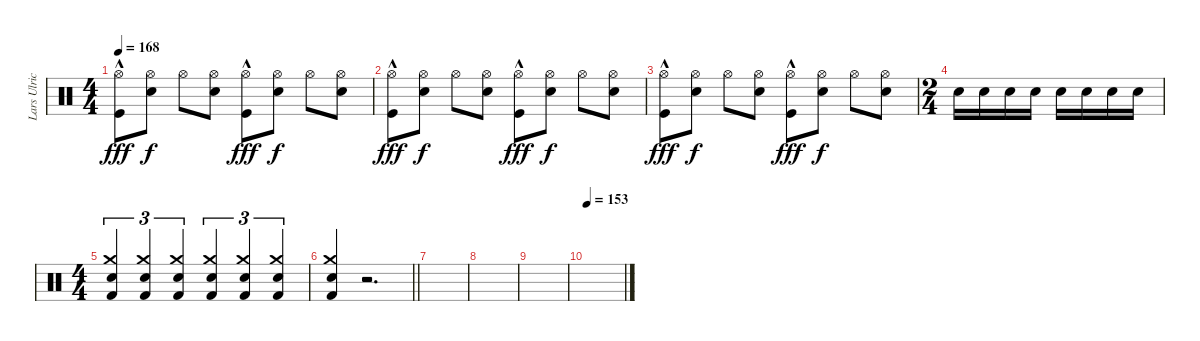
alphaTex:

\track ("Lars Ulrich" "Lars Ulric") {instrument percussion}
\staff {score}
\articulation defaults
\ts (4 4)
\tempo 168
\clef neutral
\ks c
("Hi-Hat (open)" "Kick (hit)"{hac}).8{dy fff} ("Hi-Hat (open)" "Snare (hit) 2").8{dy f} "Hi-Hat (open)".8 ("Hi-Hat (open)" "Snare (hit) 2").8 ("Hi-Hat (open)" "Kick (hit)"{hac}).8{dy fff} ("Hi-Hat (open)" "Snare (hit) 2").8{dy f} "Hi-Hat (open)".8 ("Hi-Hat (open)" "Snare (hit) 2").8 |
("Hi-Hat (open)" "Kick (hit)"{hac}).8{dy fff} ("Hi-Hat (open)" "Snare (hit) 2").8{dy f} "Hi-Hat (open)".8 ("Hi-Hat (open)" "Snare (hit) 2").8 ("Hi-Hat (open)" "Kick (hit)"{hac}).8{dy fff} ("Hi-Hat (open)" "Snare (hit) 2").8{dy f} "Hi-Hat (open)".8 ("Hi-Hat (open)" "Snare (hit) 2").8 |
("Hi-Hat (open)" "Kick (hit)"{hac}).8{dy fff} ("Hi-Hat (open)" "Snare (hit) 2").8{dy f} "Hi-Hat (open)".8 ("Hi-Hat (open)" "Snare (hit) 2").8 ("Hi-Hat (open)" "Kick (hit)"{hac}).8{dy fff} ("Hi-Hat (open)" "Snare (hit) 2").8{dy f} "Hi-Hat (open)".8 ("Hi-Hat (open)" "Snare (hit) 2").8 |
\ts (2 4)
"Snare (hit) 2".16 "Snare (hit) 2".16 "Snare (hit) 2".16 "Snare (hit) 2".16 "Snare (hit) 2".16 "Snare (hit) 2".16 "Snare (hit) 2".16 "Snare (hit) 2".16 |
\ts (4 4)
("Crash medium (hit)" "Snare (hit) 2" "Kick (hit) 2").4{tu (3 2)} ("Crash medium (hit)" "Snare (hit) 2" "Kick (hit) 2").4{tu (3 2)} ("Crash medium (hit)" "Snare (hit) 2" "Kick (hit) 2").4{tu (3 2)} ("Crash medium (hit)" "Snare (hit) 2" "Kick (hit) 2").4{tu (3 2)} ("Crash medium (hit)" "Snare (hit) 2" "Kick (hit) 2").4{tu (3 2)} ("Crash medium (hit)" "Snare (hit) 2" "Kick (hit) 2").4{tu (3 2)} |
\barLineRight lightlight
("Crash medium (hit)" "Snare (hit) 2" "Kick (hit) 2").4 r.2{d} |
|
|
|
\tempo 153
